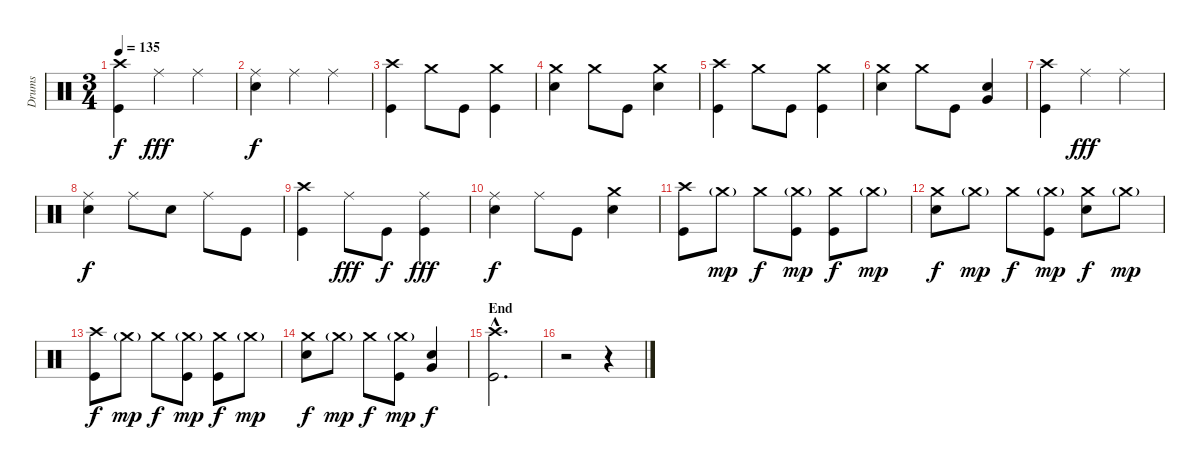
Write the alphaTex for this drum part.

\track ("Drums" "Drums") {instrument percussion}
\staff {score}
\articulation defaults
\ts (3 4)
\tempo 135
\clef neutral
\ks c
("Crash high (hit)" "Kick (hit)").4{dy f} "Ride (middle)".4{dy fff} "Ride (middle)".4 |
("Ride (middle)" "Snare (hit) 2").4{dy f} "Ride (middle)".4 "Ride (middle)".4 |
("Crash high (hit)" "Kick (hit)").4 "Crash medium (hit)".8 "Kick (hit)".8 ("Crash medium (hit)" "Kick (hit)").4 |
("Crash medium (hit)" "Snare (hit) 2").4 "Crash medium (hit)".8 "Kick (hit)".8 ("Crash medium (hit)" "Snare (hit) 2").4 |
("Crash high (hit)" "Kick (hit)").4 "Crash medium (hit)".8 "Kick (hit)".8 ("Crash medium (hit)" "Kick (hit)").4 |
("Crash medium (hit)" "Snare (hit) 2").4 "Crash medium (hit)".8 "Kick (hit)".8 ("Very Low Tom (hit)" "Snare (hit) 2").4 |
("Crash high (hit)" "Kick (hit)").4 "Ride (middle)".4{dy fff} "Ride (middle)".4 |
("Ride (middle)" "Snare (hit) 2").4{dy f} "Ride (middle)".8 "Snare (hit) 2".8 "Ride (middle)".8 "Kick (hit)".8 |
("Crash high (hit)" "Kick (hit)").4 "Ride (middle)".8{dy fff} "Kick (hit)".8{dy f} ("Ride (middle)" "Kick (hit)").4{dy fff} |
("Ride (middle)" "Snare (hit) 2").4{dy f} "Ride (middle)".8 "Kick (hit)".8 ("Crash medium (hit)" "Snare (hit) 2").4 |
("Crash high (hit)" "Kick (hit)").8 "Crash medium (hit)"{g}.8{dy mp} "Crash medium (hit)".8{dy f} ("Crash medium (hit)"{g} "Kick (hit)").8{dy mp} ("Crash medium (hit)" "Kick (hit)").8{dy f} "Crash medium (hit)"{g}.8{dy mp} |
("Crash medium (hit)" "Snare (hit) 2").8{dy f} "Crash medium (hit)"{g}.8{dy mp} "Crash medium (hit)".8{dy f} ("Crash medium (hit)"{g} "Kick (hit)").8{dy mp} ("Crash medium (hit)" "Snare (hit) 2").8{dy f} "Crash medium (hit)"{g}.8{dy mp} |
("Crash high (hit)" "Kick (hit)").8{dy f} "Crash medium (hit)"{g}.8{dy mp} "Crash medium (hit)".8{dy f} ("Crash medium (hit)"{g} "Kick (hit)").8{dy mp} ("Crash medium (hit)" "Kick (hit)").8{dy f} "Crash medium (hit)"{g}.8{dy mp} |
("Crash medium (hit)" "Snare (hit) 2").8{dy f} "Crash medium (hit)"{g}.8{dy mp} "Crash medium (hit)".8{dy f} ("Crash medium (hit)"{g} "Kick (hit)").8{dy mp} ("Very Low Tom (hit)" "Snare (hit) 2").4{dy f} |
\section ("" "End")
("Crash high (hit)"{hac} "Kick (hit)"{hac}).2{d} |
r.2 r.4
